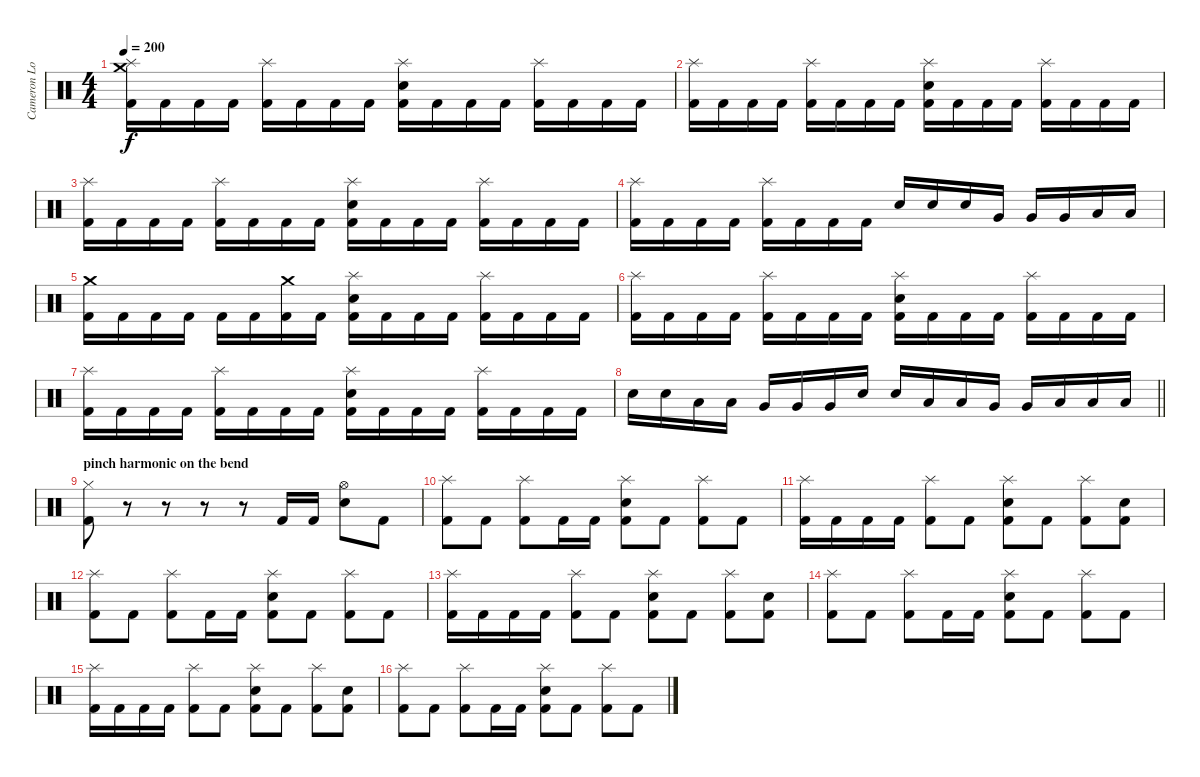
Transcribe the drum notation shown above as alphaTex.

\track ("Cameron Losch - drums" "Cameron Lo") {instrument percussion}
\staff {score}
\articulation defaults
\ts (4 4)
\tempo 200
\clef neutral
\ks c
("Splash (hit)" "Crash medium (hit)" "Kick (hit) 2").16{dy f} "Kick (hit) 2".16 "Kick (hit) 2".16 "Kick (hit) 2".16 ("Splash (hit)" "Kick (hit) 2").16 "Kick (hit) 2".16 "Kick (hit) 2".16 "Kick (hit) 2".16 ("Splash (hit)" "Electric Snare (hit)" "Kick (hit) 2").16 "Kick (hit) 2".16 "Kick (hit) 2".16 "Kick (hit) 2".16 ("Splash (hit)" "Kick (hit) 2").16 "Kick (hit) 2".16 "Kick (hit) 2".16 "Kick (hit) 2".16 |
("Splash (hit)" "Kick (hit) 2").16 "Kick (hit) 2".16 "Kick (hit) 2".16 "Kick (hit) 2".16 ("Splash (hit)" "Kick (hit) 2").16 "Kick (hit) 2".16 "Kick (hit) 2".16 "Kick (hit) 2".16 ("Splash (hit)" "Electric Snare (hit)" "Kick (hit) 2").16 "Kick (hit) 2".16 "Kick (hit) 2".16 "Kick (hit) 2".16 ("Splash (hit)" "Kick (hit) 2").16 "Kick (hit) 2".16 "Kick (hit) 2".16 "Kick (hit) 2".16 |
("Splash (hit)" "Kick (hit) 2").16 "Kick (hit) 2".16 "Kick (hit) 2".16 "Kick (hit) 2".16 ("Splash (hit)" "Kick (hit) 2").16 "Kick (hit) 2".16 "Kick (hit) 2".16 "Kick (hit) 2".16 ("Splash (hit)" "Electric Snare (hit)" "Kick (hit) 2").16 "Kick (hit) 2".16 "Kick (hit) 2".16 "Kick (hit) 2".16 ("Splash (hit)" "Kick (hit) 2").16 "Kick (hit) 2".16 "Kick (hit) 2".16 "Kick (hit) 2".16 |
("Splash (hit)" "Kick (hit) 2").16 "Kick (hit) 2".16 "Kick (hit) 2".16 "Kick (hit) 2".16 ("Splash (hit)" "Kick (hit) 2").16 "Kick (hit) 2".16 "Kick (hit) 2".16 "Kick (hit) 2".16 "Electric Snare (hit)".16 "Electric Snare (hit)".16 "Electric Snare (hit)".16 "Very Low Tom (hit)".16 "Very Low Tom (hit)".16 "Very Low Tom (hit)".16 "Low Floor Tom (hit)".16 "Low Floor Tom (hit)".16 |
("Crash medium (hit)" "Kick (hit) 2").16 "Kick (hit) 2".16 "Kick (hit) 2".16 "Kick (hit) 2".16 "Kick (hit) 2".16 "Kick (hit) 2".16 ("Crash medium (hit)" "Kick (hit) 2").16 "Kick (hit) 2".16 ("Splash (hit)" "Electric Snare (hit)" "Kick (hit) 2").16 "Kick (hit) 2".16 "Kick (hit) 2".16 "Kick (hit) 2".16 ("Splash (hit)" "Kick (hit) 2").16 "Kick (hit) 2".16 "Kick (hit) 2".16 "Kick (hit) 2".16 |
("Splash (hit)" "Kick (hit) 2").16 "Kick (hit) 2".16 "Kick (hit) 2".16 "Kick (hit) 2".16 ("Splash (hit)" "Kick (hit) 2").16 "Kick (hit) 2".16 "Kick (hit) 2".16 "Kick (hit) 2".16 ("Splash (hit)" "Electric Snare (hit)" "Kick (hit) 2").16 "Kick (hit) 2".16 "Kick (hit) 2".16 "Kick (hit) 2".16 ("Splash (hit)" "Kick (hit) 2").16 "Kick (hit) 2".16 "Kick (hit) 2".16 "Kick (hit) 2".16 |
("Splash (hit)" "Kick (hit) 2").16 "Kick (hit) 2".16 "Kick (hit) 2".16 "Kick (hit) 2".16 ("Splash (hit)" "Kick (hit) 2").16 "Kick (hit) 2".16 "Kick (hit) 2".16 "Kick (hit) 2".16 ("Splash (hit)" "Electric Snare (hit)" "Kick (hit) 2").16 "Kick (hit) 2".16 "Kick (hit) 2".16 "Kick (hit) 2".16 ("Splash (hit)" "Kick (hit) 2").16 "Kick (hit) 2".16 "Kick (hit) 2".16 "Kick (hit) 2".16 |
\barLineRight lightlight "Electric Snare (hit)".16 "Electric Snare (hit)".16 "Low Tom (hit)".16 "Low Tom (hit)".16 "Very Low Tom (hit)".16 "Very Low Tom (hit)".16 "Very Low Tom (hit)".16 "Electric Snare (hit)".16 "Electric Snare (hit)".16 "Low Tom (hit)".16 "Low Tom (hit)".16 "Very Low Tom (hit)".16 "Very Low Tom (hit)".16 "Low Floor Tom (hit)".16 "Low Floor Tom (hit)".16 "Low Floor Tom (hit)".16
|
\section ("" "pinch harmonic on the bend ")
("Hi-Hat (closed)" "Kick (hit) 2").8 r.8 r.8 r.8 r.8 "Kick (hit) 2".16 "Kick (hit) 2".16 ("Hi-Hat (open)" "Electric Snare (hit)").8 "Kick (hit) 2".8 |
("Splash (hit)" "Kick (hit) 2").8 "Kick (hit) 2".8 ("Splash (hit)" "Kick (hit) 2").8 "Kick (hit) 2".16 "Kick (hit) 2".16 ("Splash (hit)" "Electric Snare (hit)" "Kick (hit) 2").8 "Kick (hit) 2".8 ("Splash (hit)" "Kick (hit) 2").8 "Kick (hit) 2".8 |
("Splash (hit)" "Kick (hit) 2").16 "Kick (hit) 2".16 "Kick (hit) 2".16 "Kick (hit) 2".16 ("Splash (hit)" "Kick (hit) 2").8 "Kick (hit) 2".8 ("Splash (hit)" "Electric Snare (hit)" "Kick (hit) 2").8 "Kick (hit) 2".8 ("Splash (hit)" "Kick (hit) 2").8 ("Electric Snare (hit)" "Kick (hit) 2").8 |
("Splash (hit)" "Kick (hit) 2").8 "Kick (hit) 2".8 ("Splash (hit)" "Kick (hit) 2").8 "Kick (hit) 2".16 "Kick (hit) 2".16 ("Splash (hit)" "Electric Snare (hit)" "Kick (hit) 2").8 "Kick (hit) 2".8 ("Splash (hit)" "Kick (hit) 2").8 "Kick (hit) 2".8 |
("Splash (hit)" "Kick (hit) 2").16 "Kick (hit) 2".16 "Kick (hit) 2".16 "Kick (hit) 2".16 ("Splash (hit)" "Kick (hit) 2").8 "Kick (hit) 2".8 ("Splash (hit)" "Electric Snare (hit)" "Kick (hit) 2").8 "Kick (hit) 2".8 ("Splash (hit)" "Kick (hit) 2").8 ("Electric Snare (hit)" "Kick (hit) 2").8 |
("Splash (hit)" "Kick (hit) 2").8 "Kick (hit) 2".8 ("Splash (hit)" "Kick (hit) 2").8 "Kick (hit) 2".16 "Kick (hit) 2".16 ("Splash (hit)" "Electric Snare (hit)" "Kick (hit) 2").8 "Kick (hit) 2".8 ("Splash (hit)" "Kick (hit) 2").8 "Kick (hit) 2".8 |
("Splash (hit)" "Kick (hit) 2").16 "Kick (hit) 2".16 "Kick (hit) 2".16 "Kick (hit) 2".16 ("Splash (hit)" "Kick (hit) 2").8 "Kick (hit) 2".8 ("Splash (hit)" "Electric Snare (hit)" "Kick (hit) 2").8 "Kick (hit) 2".8 ("Splash (hit)" "Kick (hit) 2").8 ("Electric Snare (hit)" "Kick (hit) 2").8 |
("Splash (hit)" "Kick (hit) 2").8 "Kick (hit) 2".8 ("Splash (hit)" "Kick (hit) 2").8 "Kick (hit) 2".16 "Kick (hit) 2".16 ("Splash (hit)" "Electric Snare (hit)" "Kick (hit) 2").8 "Kick (hit) 2".8 ("Splash (hit)" "Kick (hit) 2").8 "Kick (hit) 2".8
